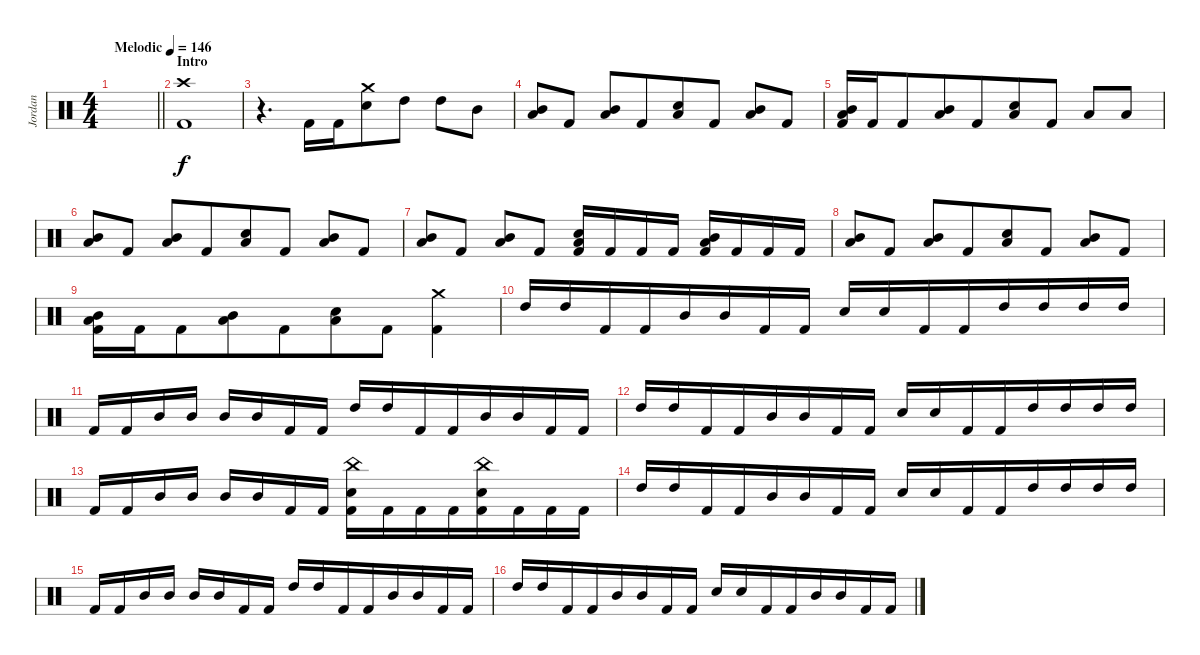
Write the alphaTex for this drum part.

\track ("Jordan" "Jordan") {instrument percussion}
\staff {score}
\articulation defaults
\ts (4 4)
\tempo (146 "Melodic")
\clef neutral
\barLineRight lightlight
\ks c
|
\section ("" "Intro")
("Crash high (hit)" "Kick (hit) 2").1 |
r.4{d} "Kick (hit) 2".16 "Kick (hit) 2".16{beam merge} ("Crash medium (hit)" "Snare (hit) 2").8{beam merge} "High Tom (hit)".8 "High Tom (hit)".8 "Mid Tom (hit)".8 |
("Mid Tom (hit)" "Low Tom (hit)").8 "Kick (hit) 2".8 ("Mid Tom (hit)" "Low Tom (hit)").8 "Kick (hit) 2".8{beam merge} ("Snare (hit) 2" "Low Tom (hit)").8{beam merge} "Kick (hit) 2".8 ("Mid Tom (hit)" "Low Tom (hit)").8 "Kick (hit) 2".8 |
("Mid Tom (hit)" "Low Tom (hit)" "Kick (hit) 2").16 "Kick (hit) 2".16{beam merge} "Kick (hit) 2".8{beam merge} ("Mid Tom (hit)" "Low Tom (hit)").8 "Kick (hit) 2".8{beam merge} ("Snare (hit) 2" "Low Tom (hit)").8{beam merge} "Kick (hit) 2".8 "Low Tom (hit)".8 "Low Tom (hit)".8 |
("Mid Tom (hit)" "Low Tom (hit)").8 "Kick (hit) 2".8 ("Mid Tom (hit)" "Low Tom (hit)").8 "Kick (hit) 2".8{beam merge} ("Snare (hit) 2" "Low Tom (hit)").8{beam merge} "Kick (hit) 2".8 ("Mid Tom (hit)" "Low Tom (hit)").8 "Kick (hit) 2".8 |
("Mid Tom (hit)" "Low Tom (hit)").8 "Kick (hit) 2".8 ("Mid Tom (hit)" "Low Tom (hit)").8 "Kick (hit) 2".8 ("Low Tom (hit)" "Snare (hit) 2" "Kick (hit) 2").16 "Kick (hit) 2".16 "Kick (hit) 2".16{beam merge} "Kick (hit) 2".16 ("Mid Tom (hit)" "Low Tom (hit)" "Kick (hit) 2").16{beam merge} "Kick (hit) 2".16{beam merge} "Kick (hit) 2".16{beam merge} "Kick (hit) 2".16 |
("Mid Tom (hit)" "Low Tom (hit)").8 "Kick (hit) 2".8 ("Mid Tom (hit)" "Low Tom (hit)").8 "Kick (hit) 2".8{beam merge} ("Snare (hit) 2" "Low Tom (hit)").8{beam merge} "Kick (hit) 2".8 ("Mid Tom (hit)" "Low Tom (hit)").8 "Kick (hit) 2".8 |
("Mid Tom (hit)" "Low Tom (hit)" "Kick (hit) 2").16 "Kick (hit) 2".16{beam merge} "Kick (hit) 2".8{beam merge} ("Mid Tom (hit)" "Low Tom (hit)").8 "Kick (hit) 2".8{beam merge} ("Snare (hit) 2" "Low Tom (hit)").8{beam merge} "Kick (hit) 2".8{beam merge} ("Crash medium (hit)" "Kick (hit) 2").4 |
"High Tom (hit)".16{beam merge} "High Tom (hit)".16 "Kick (hit) 2".16{beam merge} "Kick (hit) 2".16{beam merge} "Mid Tom (hit)".16 "Mid Tom (hit)".16{beam merge} "Kick (hit) 2".16 "Kick (hit) 2".16 "Snare (hit) 2".16 "Snare (hit) 2".16 "Kick (hit) 2".16 "Kick (hit) 2".16{beam merge} "High Tom (hit)".16 "High Tom (hit)".16{beam merge} "High Tom (hit)".16 "High Tom (hit)".16 |
"Kick (hit) 2".16{beam merge} "Kick (hit) 2".16 "Mid Tom (hit)".16{beam merge} "Mid Tom (hit)".16 "Mid Tom (hit)".16{beam merge} "Mid Tom (hit)".16 "Kick (hit) 2".16 "Kick (hit) 2".16 "High Tom (hit)".16{beam merge} "High Tom (hit)".16 "Kick (hit) 2".16 "Kick (hit) 2".16{beam merge} "Mid Tom (hit)".16 "Mid Tom (hit)".16 "Kick (hit) 2".16 "Kick (hit) 2".16 |
"High Tom (hit)".16{beam merge} "High Tom (hit)".16 "Kick (hit) 2".16{beam merge} "Kick (hit) 2".16{beam merge} "Mid Tom (hit)".16 "Mid Tom (hit)".16{beam merge} "Kick (hit) 2".16 "Kick (hit) 2".16 "Snare (hit) 2".16 "Snare (hit) 2".16 "Kick (hit) 2".16 "Kick (hit) 2".16{beam merge} "High Tom (hit)".16 "High Tom (hit)".16{beam merge} "High Tom (hit)".16 "High Tom (hit)".16 |
"Kick (hit) 2".16{beam merge} "Kick (hit) 2".16 "Mid Tom (hit)".16{beam merge} "Mid Tom (hit)".16 "Mid Tom (hit)".16{beam merge} "Mid Tom (hit)".16 "Kick (hit) 2".16 "Kick (hit) 2".16 ("China (hit)" "Snare (hit) 2" "Kick (hit) 2").16{beam merge} "Kick (hit) 2".16 "Kick (hit) 2".16{beam merge} "Kick (hit) 2".16{beam merge} ("China (hit)" "Snare (hit) 2" "Kick (hit) 2").16{beam merge} "Kick (hit) 2".16 "Kick (hit) 2".16 "Kick (hit) 2".16 |
"High Tom (hit)".16{beam merge} "High Tom (hit)".16 "Kick (hit) 2".16{beam merge} "Kick (hit) 2".16{beam merge} "Mid Tom (hit)".16 "Mid Tom (hit)".16{beam merge} "Kick (hit) 2".16 "Kick (hit) 2".16 "Snare (hit) 2".16 "Snare (hit) 2".16 "Kick (hit) 2".16 "Kick (hit) 2".16{beam merge} "High Tom (hit)".16 "High Tom (hit)".16{beam merge} "High Tom (hit)".16 "High Tom (hit)".16 |
"Kick (hit) 2".16{beam merge} "Kick (hit) 2".16 "Mid Tom (hit)".16{beam merge} "Mid Tom (hit)".16 "Mid Tom (hit)".16{beam merge} "Mid Tom (hit)".16 "Kick (hit) 2".16 "Kick (hit) 2".16 "High Tom (hit)".16{beam merge} "High Tom (hit)".16 "Kick (hit) 2".16 "Kick (hit) 2".16{beam merge} "Mid Tom (hit)".16 "Mid Tom (hit)".16 "Kick (hit) 2".16 "Kick (hit) 2".16 |
"High Tom (hit)".16{beam merge} "High Tom (hit)".16 "Kick (hit) 2".16{beam merge} "Kick (hit) 2".16{beam merge} "Mid Tom (hit)".16 "Mid Tom (hit)".16{beam merge} "Kick (hit) 2".16 "Kick (hit) 2".16 "Snare (hit) 2".16 "Snare (hit) 2".16 "Kick (hit) 2".16 "Kick (hit) 2".16{beam merge} "Mid Tom (hit)".16 "Mid Tom (hit)".16{beam merge} "Kick (hit) 2".16 "Kick (hit) 2".16
